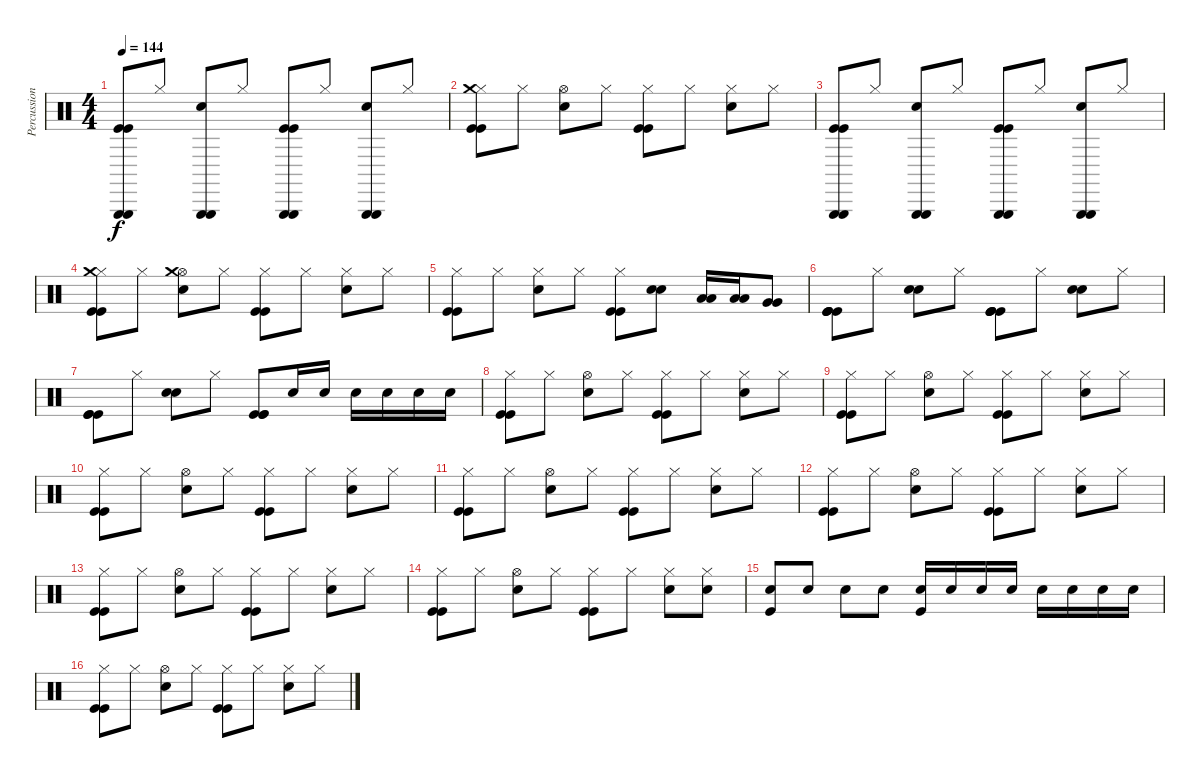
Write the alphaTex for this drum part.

\track ("Percussion" "Percussion") {instrument percussion}
\staff {score}
\articulation defaults
\ts (4 4)
\tempo 144
\clef neutral
\ks c
("Triangle (hit)" "Kick (hit)" "Kick (hit)" "Triangle (hit)").8{dy f} "Hi-Hat (closed)".8 ("Triangle (hit)" "Snare (hit) 2" "Triangle (hit)").8 "Hi-Hat (closed)".8 ("Triangle (hit)" "Kick (hit)" "Kick (hit)" "Triangle (hit)").8 "Hi-Hat (closed)".8 ("Triangle (hit)" "Snare (hit) 2" "Triangle (hit)").8 "Hi-Hat (closed)".8 |
("Hi-Hat (closed)" "Kick (hit)" "Kick (hit)" "Crash medium (hit)").8 "Hi-Hat (closed)".8 ("Hi-Hat (open)" "Snare (hit) 2").8 "Hi-Hat (closed)".8 ("Hi-Hat (closed)" "Kick (hit)" "Kick (hit)").8 "Hi-Hat (closed)".8 ("Hi-Hat (closed)" "Snare (hit) 2").8 "Hi-Hat (closed)".8 |
("Triangle (hit)" "Kick (hit)" "Kick (hit)" "Triangle (hit)").8 "Hi-Hat (closed)".8 ("Triangle (hit)" "Snare (hit) 2" "Triangle (hit)").8 "Hi-Hat (closed)".8 ("Triangle (hit)" "Kick (hit)" "Kick (hit)" "Triangle (hit)").8 "Hi-Hat (closed)".8 ("Triangle (hit)" "Snare (hit) 2" "Triangle (hit)").8 "Hi-Hat (closed)".8 |
("Hi-Hat (closed)" "Kick (hit)" "Kick (hit)" "Crash medium (hit)").8 "Hi-Hat (closed)".8 ("Hi-Hat (open)" "Snare (hit) 2" "Crash medium (hit)").8 "Hi-Hat (closed)".8 ("Hi-Hat (closed)" "Kick (hit)" "Kick (hit)").8 "Hi-Hat (closed)".8 ("Hi-Hat (closed)" "Snare (hit) 2").8 "Hi-Hat (closed)".8 |
("Hi-Hat (closed)" "Kick (hit)" "Kick (hit)").8 "Hi-Hat (closed)".8 ("Hi-Hat (closed)" "Snare (hit) 2").8 "Hi-Hat (closed)".8 ("Hi-Hat (closed)" "Kick (hit)" "Kick (hit)").8 ("Snare (hit) 2" "Snare (hit) 2").8 ("Low Floor Tom (hit)" "Low Floor Tom (hit)").16 ("Low Floor Tom (hit)" "Low Floor Tom (hit)").16 ("Very Low Tom (hit)" "Very Low Tom (hit)").8 |
("Kick (hit)" "Kick (hit)" "Kick (hit)" "Kick (hit)").8 "Hi-Hat (closed)".8 ("Snare (hit) 2" "Snare (hit) 2").8 "Hi-Hat (closed)".8 ("Kick (hit)" "Kick (hit)" "Kick (hit)" "Kick (hit)").8 "Hi-Hat (closed)".8 ("Snare (hit) 2" "Snare (hit) 2").8 "Hi-Hat (closed)".8 |
("Kick (hit)" "Kick (hit)" "Kick (hit)").8 "Hi-Hat (closed)".8 ("Snare (hit) 2" "Snare (hit) 2").8 "Hi-Hat (closed)".8 ("Kick (hit)" "Kick (hit)" "Kick (hit)").8 "Snare (hit) 2".16 "Snare (hit) 2".16 "Snare (hit) 2".16 "Snare (hit) 2".16 "Snare (hit) 2".16 "Snare (hit) 2".16 |
("Hi-Hat (closed)" "Kick (hit)" "Kick (hit)").8 "Hi-Hat (closed)".8 ("Hi-Hat (open)" "Snare (hit) 2").8 "Hi-Hat (closed)".8 ("Hi-Hat (closed)" "Kick (hit)" "Kick (hit)").8 "Hi-Hat (closed)".8 ("Hi-Hat (closed)" "Snare (hit) 2").8 "Hi-Hat (closed)".8 |
("Hi-Hat (closed)" "Kick (hit)" "Kick (hit)").8 "Hi-Hat (closed)".8 ("Hi-Hat (open)" "Snare (hit) 2").8 "Hi-Hat (closed)".8 ("Hi-Hat (closed)" "Kick (hit)" "Kick (hit)").8 "Hi-Hat (closed)".8 ("Hi-Hat (closed)" "Snare (hit) 2").8 "Hi-Hat (closed)".8 |
("Hi-Hat (closed)" "Kick (hit)" "Kick (hit)").8 "Hi-Hat (closed)".8 ("Hi-Hat (open)" "Snare (hit) 2").8 "Hi-Hat (closed)".8 ("Hi-Hat (closed)" "Kick (hit)" "Kick (hit)").8 "Hi-Hat (closed)".8 ("Hi-Hat (closed)" "Snare (hit) 2").8 "Hi-Hat (closed)".8 |
("Hi-Hat (closed)" "Kick (hit)" "Kick (hit)").8 "Hi-Hat (closed)".8 ("Hi-Hat (open)" "Snare (hit) 2").8 "Hi-Hat (closed)".8 ("Hi-Hat (closed)" "Kick (hit)" "Kick (hit)").8 "Hi-Hat (closed)".8 ("Hi-Hat (closed)" "Snare (hit) 2").8 "Hi-Hat (closed)".8 |
("Hi-Hat (closed)" "Kick (hit)" "Kick (hit)").8 "Hi-Hat (closed)".8 ("Hi-Hat (open)" "Snare (hit) 2").8 "Hi-Hat (closed)".8 ("Hi-Hat (closed)" "Kick (hit)" "Kick (hit)").8 "Hi-Hat (closed)".8 ("Hi-Hat (closed)" "Snare (hit) 2").8 "Hi-Hat (closed)".8 |
("Hi-Hat (closed)" "Kick (hit)" "Kick (hit)").8 "Hi-Hat (closed)".8 ("Hi-Hat (open)" "Snare (hit) 2").8 "Hi-Hat (closed)".8 ("Hi-Hat (closed)" "Kick (hit)" "Kick (hit)").8 "Hi-Hat (closed)".8 ("Hi-Hat (closed)" "Snare (hit) 2").8 "Hi-Hat (closed)".8 |
("Hi-Hat (closed)" "Kick (hit)" "Kick (hit)").8 "Hi-Hat (closed)".8 ("Hi-Hat (open)" "Snare (hit) 2").8 "Hi-Hat (closed)".8 ("Hi-Hat (closed)" "Kick (hit)" "Kick (hit)").8 "Hi-Hat (closed)".8 ("Hi-Hat (closed)" "Snare (hit) 2").8 ("Hi-Hat (closed)" "Snare (hit) 2").8 |
("Snare (hit) 2" "Kick (hit)").8 "Snare (hit) 2".8 "Snare (hit) 2".8 "Snare (hit) 2".8 ("Snare (hit) 2" "Kick (hit)").16 "Snare (hit) 2".16 "Snare (hit) 2".16 "Snare (hit) 2".16 "Snare (hit) 2".16 "Snare (hit) 2".16 "Snare (hit) 2".16 "Snare (hit) 2".16 |
("Hi-Hat (closed)" "Kick (hit)" "Kick (hit)").8 "Hi-Hat (closed)".8 ("Hi-Hat (open)" "Snare (hit) 2").8 "Hi-Hat (closed)".8 ("Hi-Hat (closed)" "Kick (hit)" "Kick (hit)").8 "Hi-Hat (closed)".8 ("Hi-Hat (closed)" "Snare (hit) 2").8 "Hi-Hat (closed)".8
